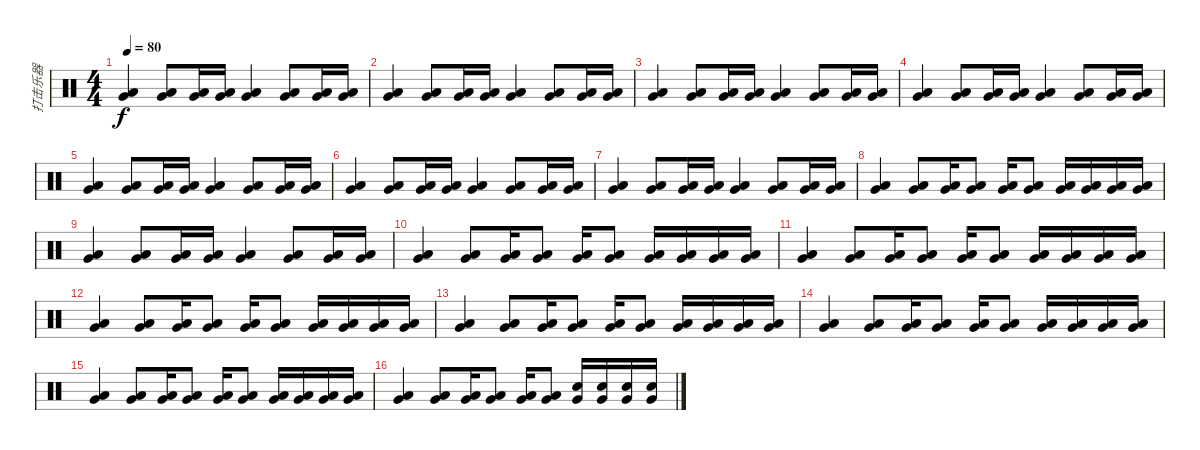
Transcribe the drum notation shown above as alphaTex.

\track ("打击乐器" "打击乐器") {instrument percussion}
\staff {score}
\articulation defaults
\ts (4 4)
\tempo 80
\clef neutral
\ks c
("Very Low Tom (hit)" "Low Floor Tom (hit)").4{dy f} ("Very Low Tom (hit)" "Low Floor Tom (hit)").8 ("Very Low Tom (hit)" "Low Floor Tom (hit)").16 ("Very Low Tom (hit)" "Low Floor Tom (hit)").16 ("Very Low Tom (hit)" "Low Floor Tom (hit)").4 ("Very Low Tom (hit)" "Low Floor Tom (hit)").8 ("Very Low Tom (hit)" "Low Floor Tom (hit)").16 ("Very Low Tom (hit)" "Low Floor Tom (hit)").16 |
("Very Low Tom (hit)" "Low Floor Tom (hit)").4 ("Very Low Tom (hit)" "Low Floor Tom (hit)").8 ("Very Low Tom (hit)" "Low Floor Tom (hit)").16 ("Very Low Tom (hit)" "Low Floor Tom (hit)").16 ("Very Low Tom (hit)" "Low Floor Tom (hit)").4 ("Very Low Tom (hit)" "Low Floor Tom (hit)").8 ("Very Low Tom (hit)" "Low Floor Tom (hit)").16 ("Very Low Tom (hit)" "Low Floor Tom (hit)").16 |
("Very Low Tom (hit)" "Low Floor Tom (hit)").4 ("Very Low Tom (hit)" "Low Floor Tom (hit)").8 ("Very Low Tom (hit)" "Low Floor Tom (hit)").16 ("Very Low Tom (hit)" "Low Floor Tom (hit)").16 ("Very Low Tom (hit)" "Low Floor Tom (hit)").4 ("Very Low Tom (hit)" "Low Floor Tom (hit)").8 ("Very Low Tom (hit)" "Low Floor Tom (hit)").16 ("Very Low Tom (hit)" "Low Floor Tom (hit)").16 |
("Very Low Tom (hit)" "Low Floor Tom (hit)").4 ("Very Low Tom (hit)" "Low Floor Tom (hit)").8 ("Very Low Tom (hit)" "Low Floor Tom (hit)").16 ("Very Low Tom (hit)" "Low Floor Tom (hit)").16 ("Very Low Tom (hit)" "Low Floor Tom (hit)").4 ("Very Low Tom (hit)" "Low Floor Tom (hit)").8 ("Very Low Tom (hit)" "Low Floor Tom (hit)").16 ("Very Low Tom (hit)" "Low Floor Tom (hit)").16 |
("Very Low Tom (hit)" "Low Floor Tom (hit)").4 ("Very Low Tom (hit)" "Low Floor Tom (hit)").8 ("Very Low Tom (hit)" "Low Floor Tom (hit)").16 ("Very Low Tom (hit)" "Low Floor Tom (hit)").16 ("Very Low Tom (hit)" "Low Floor Tom (hit)").4 ("Very Low Tom (hit)" "Low Floor Tom (hit)").8 ("Very Low Tom (hit)" "Low Floor Tom (hit)").16 ("Very Low Tom (hit)" "Low Floor Tom (hit)").16 |
("Very Low Tom (hit)" "Low Floor Tom (hit)").4 ("Very Low Tom (hit)" "Low Floor Tom (hit)").8 ("Very Low Tom (hit)" "Low Floor Tom (hit)").16 ("Very Low Tom (hit)" "Low Floor Tom (hit)").16 ("Very Low Tom (hit)" "Low Floor Tom (hit)").4 ("Very Low Tom (hit)" "Low Floor Tom (hit)").8 ("Very Low Tom (hit)" "Low Floor Tom (hit)").16 ("Very Low Tom (hit)" "Low Floor Tom (hit)").16 |
("Very Low Tom (hit)" "Low Floor Tom (hit)").4 ("Very Low Tom (hit)" "Low Floor Tom (hit)").8 ("Very Low Tom (hit)" "Low Floor Tom (hit)").16 ("Very Low Tom (hit)" "Low Floor Tom (hit)").16 ("Very Low Tom (hit)" "Low Floor Tom (hit)").4 ("Very Low Tom (hit)" "Low Floor Tom (hit)").8 ("Very Low Tom (hit)" "Low Floor Tom (hit)").16 ("Very Low Tom (hit)" "Low Floor Tom (hit)").16 |
("Very Low Tom (hit)" "Low Floor Tom (hit)").4 ("Very Low Tom (hit)" "Low Floor Tom (hit)").8 ("Very Low Tom (hit)" "Low Floor Tom (hit)").16 ("Very Low Tom (hit)" "Low Floor Tom (hit)").8 ("Very Low Tom (hit)" "Low Floor Tom (hit)").16 ("Very Low Tom (hit)" "Low Floor Tom (hit)").8 ("Very Low Tom (hit)" "Low Floor Tom (hit)").16 ("Very Low Tom (hit)" "Low Floor Tom (hit)").16 ("Very Low Tom (hit)" "Low Floor Tom (hit)").16 ("Very Low Tom (hit)" "Low Floor Tom (hit)").16 |
("Very Low Tom (hit)" "Low Floor Tom (hit)").4 ("Very Low Tom (hit)" "Low Floor Tom (hit)").8 ("Very Low Tom (hit)" "Low Floor Tom (hit)").16 ("Very Low Tom (hit)" "Low Floor Tom (hit)").16 ("Very Low Tom (hit)" "Low Floor Tom (hit)").4 ("Very Low Tom (hit)" "Low Floor Tom (hit)").8 ("Very Low Tom (hit)" "Low Floor Tom (hit)").16 ("Very Low Tom (hit)" "Low Floor Tom (hit)").16 |
("Very Low Tom (hit)" "Low Floor Tom (hit)").4 ("Very Low Tom (hit)" "Low Floor Tom (hit)").8 ("Very Low Tom (hit)" "Low Floor Tom (hit)").16 ("Very Low Tom (hit)" "Low Floor Tom (hit)").8 ("Very Low Tom (hit)" "Low Floor Tom (hit)").16 ("Very Low Tom (hit)" "Low Floor Tom (hit)").8 ("Very Low Tom (hit)" "Low Floor Tom (hit)").16 ("Very Low Tom (hit)" "Low Floor Tom (hit)").16 ("Very Low Tom (hit)" "Low Floor Tom (hit)").16 ("Very Low Tom (hit)" "Low Floor Tom (hit)").16 |
("Very Low Tom (hit)" "Low Floor Tom (hit)").4 ("Very Low Tom (hit)" "Low Floor Tom (hit)").8 ("Very Low Tom (hit)" "Low Floor Tom (hit)").16 ("Very Low Tom (hit)" "Low Floor Tom (hit)").8 ("Very Low Tom (hit)" "Low Floor Tom (hit)").16 ("Very Low Tom (hit)" "Low Floor Tom (hit)").8 ("Very Low Tom (hit)" "Low Floor Tom (hit)").16 ("Very Low Tom (hit)" "Low Floor Tom (hit)").16 ("Very Low Tom (hit)" "Low Floor Tom (hit)").16 ("Very Low Tom (hit)" "Low Floor Tom (hit)").16 |
("Very Low Tom (hit)" "Low Floor Tom (hit)").4 ("Very Low Tom (hit)" "Low Floor Tom (hit)").8 ("Very Low Tom (hit)" "Low Floor Tom (hit)").16 ("Very Low Tom (hit)" "Low Floor Tom (hit)").8 ("Very Low Tom (hit)" "Low Floor Tom (hit)").16 ("Very Low Tom (hit)" "Low Floor Tom (hit)").8 ("Very Low Tom (hit)" "Low Floor Tom (hit)").16 ("Very Low Tom (hit)" "Low Floor Tom (hit)").16 ("Very Low Tom (hit)" "Low Floor Tom (hit)").16 ("Very Low Tom (hit)" "Low Floor Tom (hit)").16 |
("Very Low Tom (hit)" "Low Floor Tom (hit)").4 ("Very Low Tom (hit)" "Low Floor Tom (hit)").8 ("Very Low Tom (hit)" "Low Floor Tom (hit)").16 ("Very Low Tom (hit)" "Low Floor Tom (hit)").8 ("Very Low Tom (hit)" "Low Floor Tom (hit)").16 ("Very Low Tom (hit)" "Low Floor Tom (hit)").8 ("Very Low Tom (hit)" "Low Floor Tom (hit)").16 ("Very Low Tom (hit)" "Low Floor Tom (hit)").16 ("Very Low Tom (hit)" "Low Floor Tom (hit)").16 ("Very Low Tom (hit)" "Low Floor Tom (hit)").16 |
("Very Low Tom (hit)" "Low Floor Tom (hit)").4 ("Very Low Tom (hit)" "Low Floor Tom (hit)").8 ("Very Low Tom (hit)" "Low Floor Tom (hit)").16 ("Very Low Tom (hit)" "Low Floor Tom (hit)").8 ("Very Low Tom (hit)" "Low Floor Tom (hit)").16 ("Very Low Tom (hit)" "Low Floor Tom (hit)").8 ("Very Low Tom (hit)" "Low Floor Tom (hit)").16 ("Very Low Tom (hit)" "Low Floor Tom (hit)").16 ("Very Low Tom (hit)" "Low Floor Tom (hit)").16 ("Very Low Tom (hit)" "Low Floor Tom (hit)").16 |
("Very Low Tom (hit)" "Low Floor Tom (hit)").4 ("Very Low Tom (hit)" "Low Floor Tom (hit)").8 ("Very Low Tom (hit)" "Low Floor Tom (hit)").16 ("Very Low Tom (hit)" "Low Floor Tom (hit)").8 ("Very Low Tom (hit)" "Low Floor Tom (hit)").16 ("Very Low Tom (hit)" "Low Floor Tom (hit)").8 ("Very Low Tom (hit)" "Low Floor Tom (hit)").16 ("Very Low Tom (hit)" "Low Floor Tom (hit)").16 ("Very Low Tom (hit)" "Low Floor Tom (hit)").16 ("Very Low Tom (hit)" "Low Floor Tom (hit)").16 |
("Very Low Tom (hit)" "Low Floor Tom (hit)").4 ("Very Low Tom (hit)" "Low Floor Tom (hit)").8 ("Very Low Tom (hit)" "Low Floor Tom (hit)").16 ("Very Low Tom (hit)" "Low Floor Tom (hit)").8 ("Very Low Tom (hit)" "Low Floor Tom (hit)").16 ("Low Floor Tom (hit)" "Very Low Tom (hit)").8 ("Electric Snare (hit)" "Very Low Tom (hit)").16 ("Very Low Tom (hit)" "Electric Snare (hit)").16 ("Very Low Tom (hit)" "Electric Snare (hit)").16 ("Electric Snare (hit)" "Very Low Tom (hit)").16
